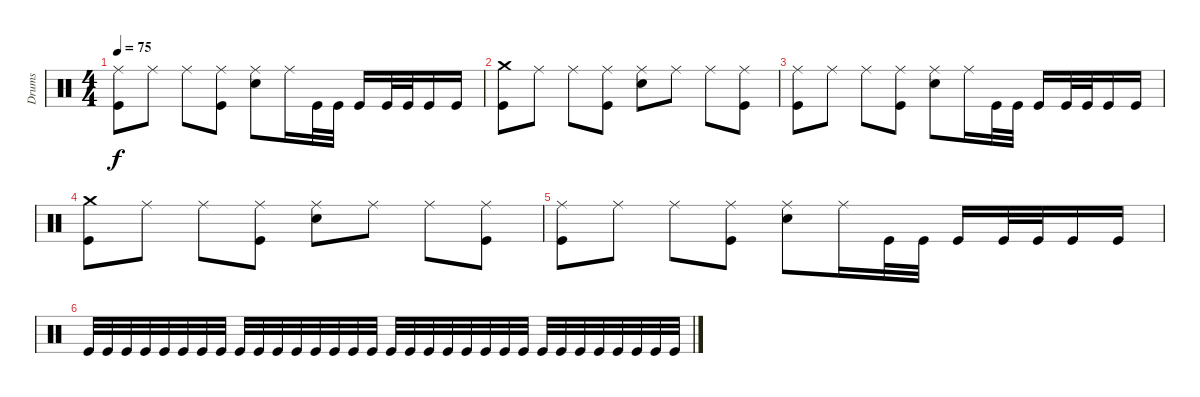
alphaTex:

\track ("Drums" "Drums") {instrument percussion}
\staff {score}
\articulation defaults
\ts (4 4)
\tempo 75
\clef neutral
\ks c
("Ride (middle)" "Kick (hit)").8{dy f} "Ride (middle)".8 "Ride (middle)".8 ("Ride (middle)" "Kick (hit)").8 ("Snare (hit) 2" "Ride (middle)").8 "Ride (middle)".16 "Kick (hit)".32 "Kick (hit)".32 "Kick (hit)".16 "Kick (hit)".32 "Kick (hit)".32 "Kick (hit)".16 "Kick (hit)".16 |
("Crash medium (hit)" "Kick (hit)").8 "Ride (middle)".8 "Ride (middle)".8 ("Ride (middle)" "Kick (hit)").8 ("Snare (hit) 2" "Ride (middle)").8 "Ride (middle)".8 "Ride (middle)".8 ("Ride (middle)" "Kick (hit)").8 |
("Ride (middle)" "Kick (hit)").8 "Ride (middle)".8 "Ride (middle)".8 ("Ride (middle)" "Kick (hit)").8 ("Snare (hit) 2" "Ride (middle)").8 "Ride (middle)".16 "Kick (hit)".32 "Kick (hit)".32 "Kick (hit)".16 "Kick (hit)".32 "Kick (hit)".32 "Kick (hit)".16 "Kick (hit)".16 |
("Crash medium (hit)" "Kick (hit)").8 "Ride (middle)".8 "Ride (middle)".8 ("Ride (middle)" "Kick (hit)").8 ("Snare (hit) 2" "Ride (middle)").8 "Ride (middle)".8 "Ride (middle)".8 ("Ride (middle)" "Kick (hit)").8 |
("Ride (middle)" "Kick (hit)").8 "Ride (middle)".8 "Ride (middle)".8 ("Ride (middle)" "Kick (hit)").8 ("Snare (hit) 2" "Ride (middle)").8 "Ride (middle)".16 "Kick (hit)".32 "Kick (hit)".32 "Kick (hit)".16 "Kick (hit)".32 "Kick (hit)".32 "Kick (hit)".16 "Kick (hit)".16 |
"Kick (hit)".32 "Kick (hit)".32 "Kick (hit)".32 "Kick (hit)".32 "Kick (hit)".32 "Kick (hit)".32 "Kick (hit)".32 "Kick (hit)".32 "Kick (hit)".32 "Kick (hit)".32 "Kick (hit)".32 "Kick (hit)".32 "Kick (hit)".32 "Kick (hit)".32 "Kick (hit)".32 "Kick (hit)".32 "Kick (hit)".32 "Kick (hit)".32 "Kick (hit)".32 "Kick (hit)".32 "Kick (hit)".32 "Kick (hit)".32 "Kick (hit)".32 "Kick (hit)".32 "Kick (hit)".32 "Kick (hit)".32 "Kick (hit)".32 "Kick (hit)".32 "Kick (hit)".32 "Kick (hit)".32 "Kick (hit)".32 "Kick (hit)".32
